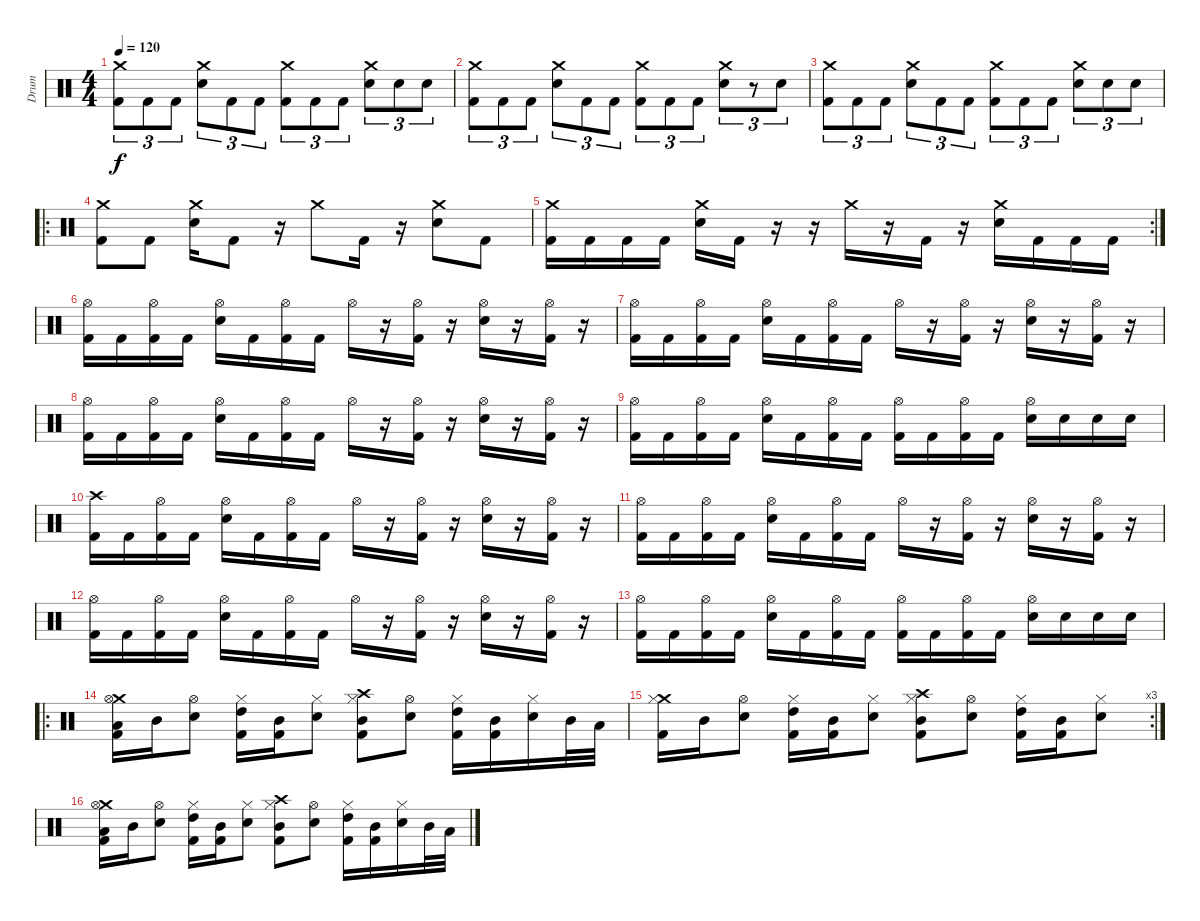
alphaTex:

\track ("Drum" "Drum") {instrument percussion}
\staff {score}
\articulation defaults
\ts (4 4)
\tempo 120
\clef neutral
\ks c
("Crash medium (hit)" "Kick (hit) 2").8{tu (3 2) dy f} "Kick (hit) 2".8{tu (3 2)} "Kick (hit) 2".8{tu (3 2)} ("Crash medium (hit)" "Electric Snare (hit)").8{tu (3 2)} "Kick (hit) 2".8{tu (3 2)} "Kick (hit) 2".8{tu (3 2)} ("Crash medium (hit)" "Kick (hit) 2").8{tu (3 2)} "Kick (hit) 2".8{tu (3 2)} "Kick (hit) 2".8{tu (3 2)} ("Crash medium (hit)" "Electric Snare (hit)").8{tu (3 2)} "Electric Snare (hit)".8{tu (3 2)} "Electric Snare (hit)".8{tu (3 2)} |
("Crash medium (hit)" "Kick (hit) 2").8{tu (3 2)} "Kick (hit) 2".8{tu (3 2)} "Kick (hit) 2".8{tu (3 2)} ("Crash medium (hit)" "Electric Snare (hit)").8{tu (3 2)} "Kick (hit) 2".8{tu (3 2)} "Kick (hit) 2".8{tu (3 2)} ("Crash medium (hit)" "Kick (hit) 2").8{tu (3 2)} "Kick (hit) 2".8{tu (3 2)} "Kick (hit) 2".8{tu (3 2)} ("Crash medium (hit)" "Electric Snare (hit)").8{tu (3 2)} r.8{tu (3 2)} "Electric Snare (hit)".8{tu (3 2)} |
("Crash medium (hit)" "Kick (hit) 2").8{tu (3 2)} "Kick (hit) 2".8{tu (3 2)} "Kick (hit) 2".8{tu (3 2)} ("Crash medium (hit)" "Electric Snare (hit)").8{tu (3 2)} "Kick (hit) 2".8{tu (3 2)} "Kick (hit) 2".8{tu (3 2)} ("Crash medium (hit)" "Kick (hit) 2").8{tu (3 2)} "Kick (hit) 2".8{tu (3 2)} "Kick (hit) 2".8{tu (3 2)} ("Crash medium (hit)" "Electric Snare (hit)").8{tu (3 2)} "Electric Snare (hit)".8{tu (3 2)} "Electric Snare (hit)".8{tu (3 2)} |
\ro
("Crash medium (hit)" "Kick (hit) 2").8 "Kick (hit) 2".8 ("Crash medium (hit)" "Electric Snare (hit)").16 "Kick (hit) 2".8 r.16 "Crash medium (hit)".8 "Kick (hit) 2".16 r.16 ("Crash medium (hit)" "Electric Snare (hit)").8 "Kick (hit) 2".8 |
\rc 2
("Crash medium (hit)" "Kick (hit) 2").16 "Kick (hit) 2".16 "Kick (hit) 2".16 "Kick (hit) 2".16 ("Crash medium (hit)" "Electric Snare (hit)").16 "Kick (hit) 2".16 r.16 r.16 "Crash medium (hit)".16 r.16 "Kick (hit) 2".16 r.16 ("Crash medium (hit)" "Electric Snare (hit)").16 "Kick (hit) 2".16 "Kick (hit) 2".16 "Kick (hit) 2".16 |
("Hi-Hat (open)" "Kick (hit) 2").16 "Kick (hit) 2".16 ("Hi-Hat (open)" "Kick (hit) 2").16 "Kick (hit) 2".16 ("Hi-Hat (open)" "Electric Snare (hit)").16 "Kick (hit) 2".16 ("Hi-Hat (open)" "Kick (hit) 2").16 "Kick (hit) 2".16 "Hi-Hat (open)".16 r.16 ("Hi-Hat (open)" "Kick (hit) 2").16 r.16 ("Hi-Hat (open)" "Electric Snare (hit)").16 r.16 ("Hi-Hat (open)" "Kick (hit) 2").16 r.16 |
("Hi-Hat (open)" "Kick (hit) 2").16 "Kick (hit) 2".16 ("Hi-Hat (open)" "Kick (hit) 2").16 "Kick (hit) 2".16 ("Hi-Hat (open)" "Electric Snare (hit)").16 "Kick (hit) 2".16 ("Hi-Hat (open)" "Kick (hit) 2").16 "Kick (hit) 2".16 "Hi-Hat (open)".16 r.16 ("Hi-Hat (open)" "Kick (hit) 2").16 r.16 ("Hi-Hat (open)" "Electric Snare (hit)").16 r.16 ("Hi-Hat (open)" "Kick (hit) 2").16 r.16 |
("Hi-Hat (open)" "Kick (hit) 2").16 "Kick (hit) 2".16 ("Hi-Hat (open)" "Kick (hit) 2").16 "Kick (hit) 2".16 ("Hi-Hat (open)" "Electric Snare (hit)").16 "Kick (hit) 2".16 ("Hi-Hat (open)" "Kick (hit) 2").16 "Kick (hit) 2".16 "Hi-Hat (open)".16 r.16 ("Hi-Hat (open)" "Kick (hit) 2").16 r.16 ("Hi-Hat (open)" "Electric Snare (hit)").16 r.16 ("Hi-Hat (open)" "Kick (hit) 2").16 r.16 |
("Hi-Hat (open)" "Kick (hit) 2").16 "Kick (hit) 2".16 ("Hi-Hat (open)" "Kick (hit) 2").16 "Kick (hit) 2".16 ("Hi-Hat (open)" "Electric Snare (hit)").16 "Kick (hit) 2".16 ("Hi-Hat (open)" "Kick (hit) 2").16 "Kick (hit) 2".16 ("Hi-Hat (open)" "Kick (hit) 2").16 "Kick (hit) 2".16 ("Hi-Hat (open)" "Kick (hit) 2").16 "Kick (hit) 2".16 ("Hi-Hat (open)" "Electric Snare (hit)").16 "Electric Snare (hit)".16 "Electric Snare (hit)".16 "Electric Snare (hit)".16 |
("Crash high (hit)" "Kick (hit) 2").16 "Kick (hit) 2".16 ("Hi-Hat (open)" "Kick (hit) 2").16 "Kick (hit) 2".16 ("Hi-Hat (open)" "Electric Snare (hit)").16 "Kick (hit) 2".16 ("Hi-Hat (open)" "Kick (hit) 2").16 "Kick (hit) 2".16 "Hi-Hat (open)".16 r.16 ("Hi-Hat (open)" "Kick (hit) 2").16 r.16 ("Hi-Hat (open)" "Electric Snare (hit)").16 r.16 ("Hi-Hat (open)" "Kick (hit) 2").16 r.16 |
("Hi-Hat (open)" "Kick (hit) 2").16 "Kick (hit) 2".16 ("Hi-Hat (open)" "Kick (hit) 2").16 "Kick (hit) 2".16 ("Hi-Hat (open)" "Electric Snare (hit)").16 "Kick (hit) 2".16 ("Hi-Hat (open)" "Kick (hit) 2").16 "Kick (hit) 2".16 "Hi-Hat (open)".16 r.16 ("Hi-Hat (open)" "Kick (hit) 2").16 r.16 ("Hi-Hat (open)" "Electric Snare (hit)").16 r.16 ("Hi-Hat (open)" "Kick (hit) 2").16 r.16 |
("Hi-Hat (open)" "Kick (hit) 2").16 "Kick (hit) 2".16 ("Hi-Hat (open)" "Kick (hit) 2").16 "Kick (hit) 2".16 ("Hi-Hat (open)" "Electric Snare (hit)").16 "Kick (hit) 2".16 ("Hi-Hat (open)" "Kick (hit) 2").16 "Kick (hit) 2".16 "Hi-Hat (open)".16 r.16 ("Hi-Hat (open)" "Kick (hit) 2").16 r.16 ("Hi-Hat (open)" "Electric Snare (hit)").16 r.16 ("Hi-Hat (open)" "Kick (hit) 2").16 r.16 |
("Hi-Hat (open)" "Kick (hit) 2").16 "Kick (hit) 2".16 ("Hi-Hat (open)" "Kick (hit) 2").16 "Kick (hit) 2".16 ("Hi-Hat (open)" "Electric Snare (hit)").16 "Kick (hit) 2".16 ("Hi-Hat (open)" "Kick (hit) 2").16 "Kick (hit) 2".16 ("Hi-Hat (open)" "Kick (hit) 2").16 "Kick (hit) 2".16 ("Hi-Hat (open)" "Kick (hit) 2").16 "Kick (hit) 2".16 ("Hi-Hat (open)" "Electric Snare (hit)").16 "Electric Snare (hit)".16 "Electric Snare (hit)".16 "Electric Snare (hit)".16 |
\ro
("Crash medium (hit)" "Hi-Hat (open)" "Low Tom (hit)" "Kick (hit) 2").16 "Mid Tom (hit)".16 ("Hi-Hat (open)" "Snare (hit) 2").8 ("Hi-Hat (closed)" "High Tom (hit)" "Kick (hit) 2").16 ("Mid Tom (hit)" "Kick (hit) 2").16 ("Hi-Hat (closed)" "Snare (hit) 2").8 ("Crash high (hit)" "Hi-Hat (closed)" "Mid Tom (hit)" "Kick (hit) 2").8 ("Hi-Hat (open)" "Snare (hit) 2").8 ("Hi-Hat (closed)" "High Tom (hit)" "Kick (hit) 2").16 ("Mid Tom (hit)" "Kick (hit) 2").16 ("Hi-Hat (closed)" "Snare (hit) 2").16 "Mid Tom (hit)".32 "Low Tom (hit)".32 |
\rc 3
("Crash medium (hit)" "Hi-Hat (closed)" "Kick (hit) 2").16 "Mid Tom (hit)".16 ("Hi-Hat (open)" "Snare (hit) 2").8 ("Hi-Hat (closed)" "High Tom (hit)" "Kick (hit) 2").16 ("Mid Tom (hit)" "Kick (hit) 2").16 ("Hi-Hat (closed)" "Snare (hit) 2").8 ("Crash high (hit)" "Hi-Hat (closed)" "Mid Tom (hit)" "Kick (hit) 2").8 ("Hi-Hat (open)" "Snare (hit) 2").8 ("Hi-Hat (closed)" "High Tom (hit)" "Kick (hit) 2").16 ("Mid Tom (hit)" "Kick (hit) 2").16 ("Hi-Hat (closed)" "Snare (hit) 2").8 |
("Crash medium (hit)" "Hi-Hat (open)" "Low Tom (hit)" "Kick (hit) 2").16 "Mid Tom (hit)".16 ("Hi-Hat (open)" "Snare (hit) 2").8 ("Hi-Hat (closed)" "High Tom (hit)" "Kick (hit) 2").16 ("Mid Tom (hit)" "Kick (hit) 2").16 ("Hi-Hat (closed)" "Snare (hit) 2").8 ("Crash high (hit)" "Hi-Hat (closed)" "Mid Tom (hit)" "Kick (hit) 2").8 ("Hi-Hat (open)" "Snare (hit) 2").8 ("Hi-Hat (closed)" "High Tom (hit)" "Kick (hit) 2").16 ("Mid Tom (hit)" "Kick (hit) 2").16 ("Hi-Hat (closed)" "Snare (hit) 2").16 "Mid Tom (hit)".32 "Low Tom (hit)".32
